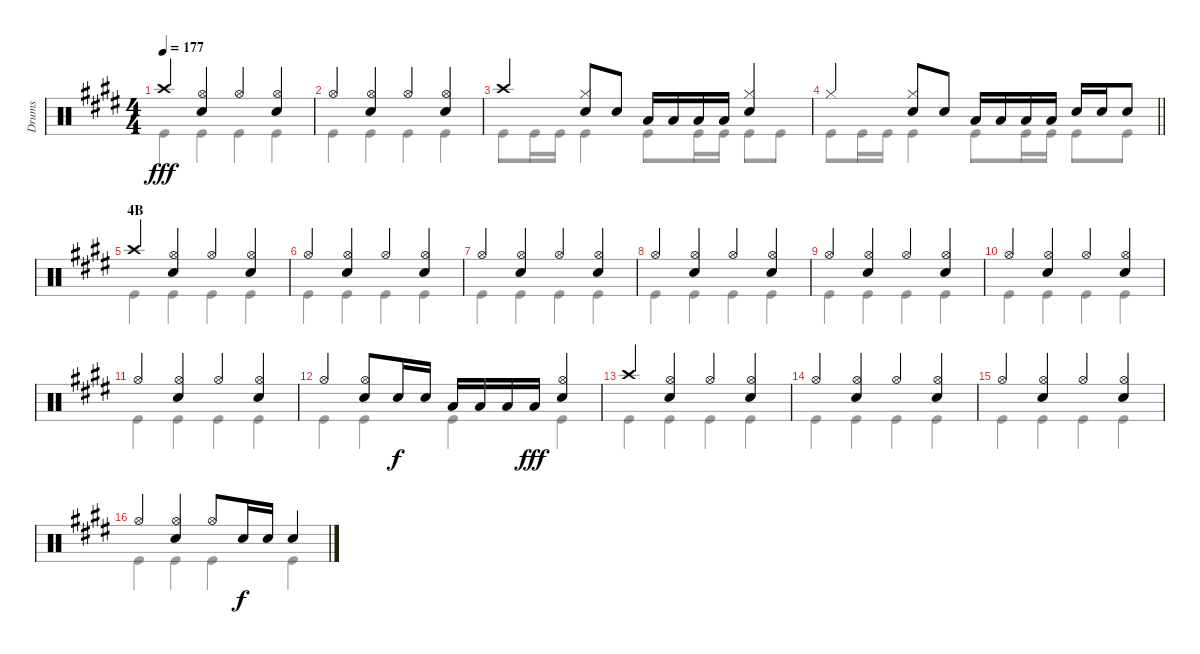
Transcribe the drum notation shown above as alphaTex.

\track ("Drums" "Drums") {instrument percussion}
\staff {score}
\articulation defaults
\voice
\ts (4 4)
\tempo 177
\clef neutral
\ks e "Crash high (hit)".4{dy fff}
("Hi-Hat (open)" "Snare (hit) 2").4 "Hi-Hat (open)".4 ("Hi-Hat (open)" "Snare (hit) 2").4 |
"Hi-Hat (open)".4 ("Hi-Hat (open)" "Snare (hit) 2").4 "Hi-Hat (open)".4 ("Hi-Hat (open)" "Snare (hit) 2").4 |
"Crash high (hit)".4 ("Snare (hit) 2" "Hi-Hat (closed)").8 "Snare (hit) 2".8 "Low Tom (hit)".16 "Low Tom (hit)".16 "Low Tom (hit)".16 "Low Tom (hit)".16 ("Hi-Hat (closed)" "Snare (hit) 2").4 |
\barLineRight lightlight "Hi-Hat (closed)".4
("Snare (hit) 2" "Hi-Hat (closed)").8 "Snare (hit) 2".8 "Low Tom (hit)".16 "Low Tom (hit)".16 "Low Tom (hit)".16 "Low Tom (hit)".16 "Snare (hit) 2".16 "Snare (hit) 2".16 "Snare (hit) 2".8 |
\section ("" "4B")
"Crash high (hit)".4 ("Hi-Hat (open)" "Snare (hit) 2").4 "Hi-Hat (open)".4 ("Hi-Hat (open)" "Snare (hit) 2").4 |
"Hi-Hat (open)".4 ("Hi-Hat (open)" "Snare (hit) 2").4 "Hi-Hat (open)".4 ("Hi-Hat (open)" "Snare (hit) 2").4 |
"Hi-Hat (open)".4 ("Hi-Hat (open)" "Snare (hit) 2").4 "Hi-Hat (open)".4 ("Hi-Hat (open)" "Snare (hit) 2").4 |
"Hi-Hat (open)".4 ("Hi-Hat (open)" "Snare (hit) 2").4 "Hi-Hat (open)".4 ("Hi-Hat (open)" "Snare (hit) 2").4 |
"Hi-Hat (open)".4 ("Hi-Hat (open)" "Snare (hit) 2").4 "Hi-Hat (open)".4 ("Hi-Hat (open)" "Snare (hit) 2").4 |
"Hi-Hat (open)".4 ("Hi-Hat (open)" "Snare (hit) 2").4 "Hi-Hat (open)".4 ("Hi-Hat (open)" "Snare (hit) 2").4 |
"Hi-Hat (open)".4 ("Hi-Hat (open)" "Snare (hit) 2").4 "Hi-Hat (open)".4 ("Hi-Hat (open)" "Snare (hit) 2").4 |
"Hi-Hat (open)".4 ("Hi-Hat (open)" "Snare (hit) 2").8 "Snare (hit) 2".16{dy f} "Snare (hit) 2".16 "Low Tom (hit)".16 "Low Tom (hit)".16 "Low Tom (hit)".16 "Low Tom (hit)".16{dy fff} ("Hi-Hat (open)" "Snare (hit) 2").4 |
"Crash high (hit)".4 ("Hi-Hat (open)" "Snare (hit) 2").4 "Hi-Hat (open)".4 ("Hi-Hat (open)" "Snare (hit) 2").4 |
"Hi-Hat (open)".4 ("Hi-Hat (open)" "Snare (hit) 2").4 "Hi-Hat (open)".4 ("Hi-Hat (open)" "Snare (hit) 2").4 |
"Hi-Hat (open)".4 ("Hi-Hat (open)" "Snare (hit) 2").4 "Hi-Hat (open)".4 ("Hi-Hat (open)" "Snare (hit) 2").4 |
"Hi-Hat (open)".4 ("Hi-Hat (open)" "Snare (hit) 2").4 "Hi-Hat (open)".8 "Snare (hit) 2".16{dy f} "Snare (hit) 2".16 "Snare (hit) 2".4
\voice
\clef neutral
\ottava regular
\simile none
\ks e "Kick (hit)".4{dy fff} "Kick (hit)".4 "Kick (hit)".4 "Kick (hit)".4
|
"Kick (hit)".4 "Kick (hit)".4 "Kick (hit)".4 "Kick (hit)".4 |
"Kick (hit)".8 "Kick (hit)".16 "Kick (hit)".16 "Kick (hit)".4 "Kick (hit)".8 "Kick (hit)".16 "Kick (hit)".16 "Kick (hit)".8 "Kick (hit)".8 |
\barLineRight lightlight "Kick (hit)".8 "Kick (hit)".16 "Kick (hit)".16 "Kick (hit)".4 "Kick (hit)".8 "Kick (hit)".16 "Kick (hit)".16 "Kick (hit)".8 "Kick (hit)".8
|
"Kick (hit)".4 "Kick (hit)".4 "Kick (hit)".4 "Kick (hit)".4 |
"Kick (hit)".4 "Kick (hit)".4 "Kick (hit)".4 "Kick (hit)".4 |
"Kick (hit)".4 "Kick (hit)".4 "Kick (hit)".4 "Kick (hit)".4 |
"Kick (hit)".4 "Kick (hit)".4 "Kick (hit)".4 "Kick (hit)".4 |
"Kick (hit)".4 "Kick (hit)".4 "Kick (hit)".4 "Kick (hit)".4 |
"Kick (hit)".4 "Kick (hit)".4 "Kick (hit)".4 "Kick (hit)".4 |
"Kick (hit)".4 "Kick (hit)".4 "Kick (hit)".4 "Kick (hit)".4 |
"Kick (hit)".4 "Kick (hit)".4 "Kick (hit)".4 "Kick (hit)".4 |
"Kick (hit)".4 "Kick (hit)".4 "Kick (hit)".4 "Kick (hit)".4 |
"Kick (hit)".4 "Kick (hit)".4 "Kick (hit)".4 "Kick (hit)".4 |
"Kick (hit)".4 "Kick (hit)".4 "Kick (hit)".4 "Kick (hit)".4 |
"Kick (hit)".4 "Kick (hit)".4 "Kick (hit)".4 "Kick (hit)".4
